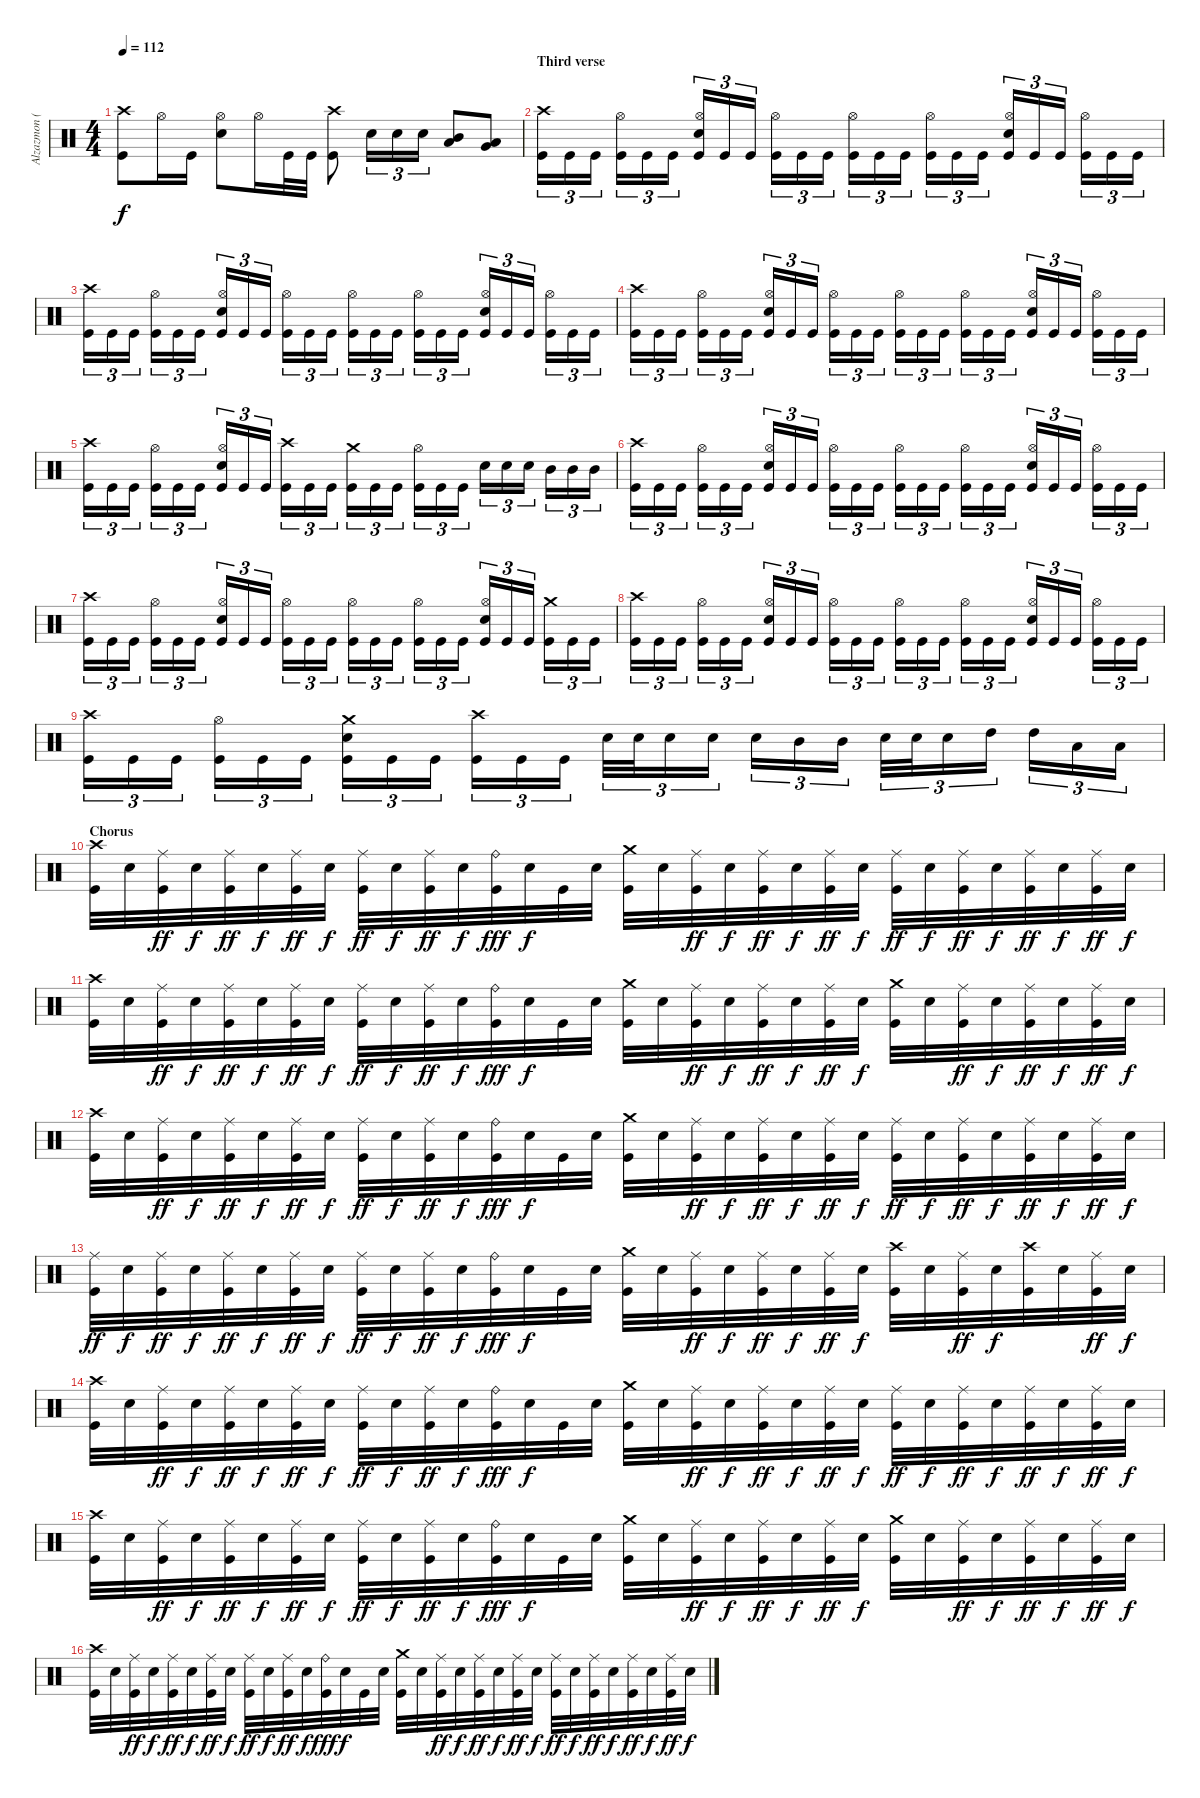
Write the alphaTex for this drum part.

\track ("Alzazmon (Drums)" "Alzazmon (") {instrument percussion}
\staff {score}
\articulation defaults
\ts (4 4)
\tempo 112
\clef neutral
\ks c
("Crash high (hit)" "Kick (hit)").8{dy f} "Hi-Hat (open)".16 "Kick (hit)".16 ("Hi-Hat (open)" "Electric Snare (hit)").8 "Hi-Hat (open)".16 "Kick (hit)".32 "Kick (hit)".32 ("Crash high (hit)" "Kick (hit)").8 "Electric Snare (hit)".16{tu (3 2)} "Electric Snare (hit)".16{tu (3 2)} "Electric Snare (hit)".16{tu (3 2)} ("Mid Tom (hit)" "Low Tom (hit)").8{bu 60} ("Low Tom (hit)" "Very Low Tom (hit)").8{bu 60} |
\section ("" "Third verse")
("Crash high (hit)" "Kick (hit)").16{tu (3 2)} "Kick (hit)".16{tu (3 2)} "Kick (hit)".16{tu (3 2)} ("Hi-Hat (open)" "Kick (hit)").16{tu (3 2)} "Kick (hit)".16{tu (3 2)} "Kick (hit)".16{tu (3 2)} ("Hi-Hat (open)" "Electric Snare (hit)" "Kick (hit)").16{tu (3 2)} "Kick (hit)".16{tu (3 2)} "Kick (hit)".16{tu (3 2)} ("Hi-Hat (open)" "Kick (hit)").16{tu (3 2)} "Kick (hit)".16{tu (3 2)} "Kick (hit)".16{tu (3 2)} ("Hi-Hat (open)" "Kick (hit)").16{tu (3 2)} "Kick (hit)".16{tu (3 2)} "Kick (hit)".16{tu (3 2)} ("Hi-Hat (open)" "Kick (hit)").16{tu (3 2)} "Kick (hit)".16{tu (3 2)} "Kick (hit)".16{tu (3 2)} ("Hi-Hat (open)" "Electric Snare (hit)" "Kick (hit)").16{tu (3 2)} "Kick (hit)".16{tu (3 2)} "Kick (hit)".16{tu (3 2)} ("Hi-Hat (open)" "Kick (hit)").16{tu (3 2)} "Kick (hit)".16{tu (3 2)} "Kick (hit)".16{tu (3 2)} |
("Crash high (hit)" "Kick (hit)").16{tu (3 2)} "Kick (hit)".16{tu (3 2)} "Kick (hit)".16{tu (3 2)} ("Hi-Hat (open)" "Kick (hit)").16{tu (3 2)} "Kick (hit)".16{tu (3 2)} "Kick (hit)".16{tu (3 2)} ("Hi-Hat (open)" "Electric Snare (hit)" "Kick (hit)").16{tu (3 2)} "Kick (hit)".16{tu (3 2)} "Kick (hit)".16{tu (3 2)} ("Hi-Hat (open)" "Kick (hit)").16{tu (3 2)} "Kick (hit)".16{tu (3 2)} "Kick (hit)".16{tu (3 2)} ("Hi-Hat (open)" "Kick (hit)").16{tu (3 2)} "Kick (hit)".16{tu (3 2)} "Kick (hit)".16{tu (3 2)} ("Hi-Hat (open)" "Kick (hit)").16{tu (3 2)} "Kick (hit)".16{tu (3 2)} "Kick (hit)".16{tu (3 2)} ("Hi-Hat (open)" "Electric Snare (hit)" "Kick (hit)").16{tu (3 2)} "Kick (hit)".16{tu (3 2)} "Kick (hit)".16{tu (3 2)} ("Hi-Hat (open)" "Kick (hit)").16{tu (3 2)} "Kick (hit)".16{tu (3 2)} "Kick (hit)".16{tu (3 2)} |
("Crash high (hit)" "Kick (hit)").16{tu (3 2)} "Kick (hit)".16{tu (3 2)} "Kick (hit)".16{tu (3 2)} ("Hi-Hat (open)" "Kick (hit)").16{tu (3 2)} "Kick (hit)".16{tu (3 2)} "Kick (hit)".16{tu (3 2)} ("Hi-Hat (open)" "Electric Snare (hit)" "Kick (hit)").16{tu (3 2)} "Kick (hit)".16{tu (3 2)} "Kick (hit)".16{tu (3 2)} ("Hi-Hat (open)" "Kick (hit)").16{tu (3 2)} "Kick (hit)".16{tu (3 2)} "Kick (hit)".16{tu (3 2)} ("Hi-Hat (open)" "Kick (hit)").16{tu (3 2)} "Kick (hit)".16{tu (3 2)} "Kick (hit)".16{tu (3 2)} ("Hi-Hat (open)" "Kick (hit)").16{tu (3 2)} "Kick (hit)".16{tu (3 2)} "Kick (hit)".16{tu (3 2)} ("Hi-Hat (open)" "Electric Snare (hit)" "Kick (hit)").16{tu (3 2)} "Kick (hit)".16{tu (3 2)} "Kick (hit)".16{tu (3 2)} ("Hi-Hat (open)" "Kick (hit)").16{tu (3 2)} "Kick (hit)".16{tu (3 2)} "Kick (hit)".16{tu (3 2)} |
("Crash high (hit)" "Kick (hit)").16{tu (3 2)} "Kick (hit)".16{tu (3 2)} "Kick (hit)".16{tu (3 2)} ("Hi-Hat (open)" "Kick (hit)").16{tu (3 2)} "Kick (hit)".16{tu (3 2)} "Kick (hit)".16{tu (3 2)} ("Hi-Hat (open)" "Electric Snare (hit)" "Kick (hit)").16{tu (3 2)} "Kick (hit)".16{tu (3 2)} "Kick (hit)".16{tu (3 2)} ("Crash high (hit)" "Kick (hit)").16{tu (3 2)} "Kick (hit)".16{tu (3 2)} "Kick (hit)".16{tu (3 2)} ("Crash medium (hit)" "Kick (hit)").16{tu (3 2)} "Kick (hit)".16{tu (3 2)} "Kick (hit)".16{tu (3 2)} ("Hi-Hat (open)" "Kick (hit)").16{tu (3 2)} "Kick (hit)".16{tu (3 2)} "Kick (hit)".16{tu (3 2)} "Electric Snare (hit)".16{tu (3 2)} "Electric Snare (hit)".16{tu (3 2)} "Electric Snare (hit)".16{tu (3 2)} "Mid Tom (hit)".16{tu (3 2)} "Mid Tom (hit)".16{tu (3 2)} "Mid Tom (hit)".16{tu (3 2)} |
("Crash high (hit)" "Kick (hit)").16{tu (3 2)} "Kick (hit)".16{tu (3 2)} "Kick (hit)".16{tu (3 2)} ("Hi-Hat (open)" "Kick (hit)").16{tu (3 2)} "Kick (hit)".16{tu (3 2)} "Kick (hit)".16{tu (3 2)} ("Hi-Hat (open)" "Electric Snare (hit)" "Kick (hit)").16{tu (3 2)} "Kick (hit)".16{tu (3 2)} "Kick (hit)".16{tu (3 2)} ("Hi-Hat (open)" "Kick (hit)").16{tu (3 2)} "Kick (hit)".16{tu (3 2)} "Kick (hit)".16{tu (3 2)} ("Hi-Hat (open)" "Kick (hit)").16{tu (3 2)} "Kick (hit)".16{tu (3 2)} "Kick (hit)".16{tu (3 2)} ("Hi-Hat (open)" "Kick (hit)").16{tu (3 2)} "Kick (hit)".16{tu (3 2)} "Kick (hit)".16{tu (3 2)} ("Hi-Hat (open)" "Electric Snare (hit)" "Kick (hit)").16{tu (3 2)} "Kick (hit)".16{tu (3 2)} "Kick (hit)".16{tu (3 2)} ("Hi-Hat (open)" "Kick (hit)").16{tu (3 2)} "Kick (hit)".16{tu (3 2)} "Kick (hit)".16{tu (3 2)} |
("Crash high (hit)" "Kick (hit)").16{tu (3 2)} "Kick (hit)".16{tu (3 2)} "Kick (hit)".16{tu (3 2)} ("Hi-Hat (open)" "Kick (hit)").16{tu (3 2)} "Kick (hit)".16{tu (3 2)} "Kick (hit)".16{tu (3 2)} ("Hi-Hat (open)" "Electric Snare (hit)" "Kick (hit)").16{tu (3 2)} "Kick (hit)".16{tu (3 2)} "Kick (hit)".16{tu (3 2)} ("Hi-Hat (open)" "Kick (hit)").16{tu (3 2)} "Kick (hit)".16{tu (3 2)} "Kick (hit)".16{tu (3 2)} ("Hi-Hat (open)" "Kick (hit)").16{tu (3 2)} "Kick (hit)".16{tu (3 2)} "Kick (hit)".16{tu (3 2)} ("Hi-Hat (open)" "Kick (hit)").16{tu (3 2)} "Kick (hit)".16{tu (3 2)} "Kick (hit)".16{tu (3 2)} ("Hi-Hat (open)" "Electric Snare (hit)" "Kick (hit)").16{tu (3 2)} "Kick (hit)".16{tu (3 2)} "Kick (hit)".16{tu (3 2)} ("Crash medium (hit)" "Kick (hit)").16{tu (3 2)} "Kick (hit)".16{tu (3 2)} "Kick (hit)".16{tu (3 2)} |
("Crash high (hit)" "Kick (hit)").16{tu (3 2)} "Kick (hit)".16{tu (3 2)} "Kick (hit)".16{tu (3 2)} ("Hi-Hat (open)" "Kick (hit)").16{tu (3 2)} "Kick (hit)".16{tu (3 2)} "Kick (hit)".16{tu (3 2)} ("Hi-Hat (open)" "Electric Snare (hit)" "Kick (hit)").16{tu (3 2)} "Kick (hit)".16{tu (3 2)} "Kick (hit)".16{tu (3 2)} ("Hi-Hat (open)" "Kick (hit)").16{tu (3 2)} "Kick (hit)".16{tu (3 2)} "Kick (hit)".16{tu (3 2)} ("Hi-Hat (open)" "Kick (hit)").16{tu (3 2)} "Kick (hit)".16{tu (3 2)} "Kick (hit)".16{tu (3 2)} ("Hi-Hat (open)" "Kick (hit)").16{tu (3 2)} "Kick (hit)".16{tu (3 2)} "Kick (hit)".16{tu (3 2)} ("Hi-Hat (open)" "Electric Snare (hit)" "Kick (hit)").16{tu (3 2)} "Kick (hit)".16{tu (3 2)} "Kick (hit)".16{tu (3 2)} ("Hi-Hat (open)" "Kick (hit)").16{tu (3 2)} "Kick (hit)".16{tu (3 2)} "Kick (hit)".16{tu (3 2)} |
("Crash high (hit)" "Kick (hit)").16{tu (3 2)} "Kick (hit)".16{tu (3 2)} "Kick (hit)".16{tu (3 2)} ("Hi-Hat (open)" "Kick (hit)").16{tu (3 2)} "Kick (hit)".16{tu (3 2)} "Kick (hit)".16{tu (3 2)} ("Crash medium (hit)" "Electric Snare (hit)" "Kick (hit)").16{tu (3 2)} "Kick (hit)".16{tu (3 2)} "Kick (hit)".16{tu (3 2)} ("Crash high (hit)" "Kick (hit)").16{tu (3 2)} "Kick (hit)".16{tu (3 2)} "Kick (hit)".16{tu (3 2)} "Electric Snare (hit)".32{tu (3 2)} "Electric Snare (hit)".32{tu (3 2)} "Electric Snare (hit)".16{tu (3 2)} "Electric Snare (hit)".16{tu (3 2)} "Electric Snare (hit)".16{tu (3 2)} "Mid Tom (hit)".16{tu (3 2)} "Mid Tom (hit)".16{tu (3 2)} "Electric Snare (hit)".32{tu (3 2)} "Electric Snare (hit)".32{tu (3 2)} "Electric Snare (hit)".16{tu (3 2)} "High Tom (hit)".16{tu (3 2)} "High Tom (hit)".16{tu (3 2)} "Low Tom (hit)".16{tu (3 2)} "Low Tom (hit)".16{tu (3 2)} |
\section ("" "Chorus")
("Crash high (hit)" "Kick (hit)").32 "Electric Snare (hit)".32 ("Ride (middle)" "Kick (hit)").32{dy ff} "Electric Snare (hit)".32{dy f} ("Ride (middle)" "Kick (hit)").32{dy ff} "Electric Snare (hit)".32{dy f} ("Ride (middle)" "Kick (hit)").32{dy ff} "Electric Snare (hit)".32{dy f} ("Ride (middle)" "Kick (hit)").32{dy ff} "Electric Snare (hit)".32{dy f} ("Ride (middle)" "Kick (hit)").32{dy ff} "Electric Snare (hit)".32{dy f} ("Ride (bell)" "Kick (hit)").32{dy fff} "Electric Snare (hit)".32{dy f} "Kick (hit)".32 "Electric Snare (hit)".32 ("Crash medium (hit)" "Kick (hit)").32 "Electric Snare (hit)".32 ("Ride (middle)" "Kick (hit)").32{dy ff} "Electric Snare (hit)".32{dy f} ("Ride (middle)" "Kick (hit)").32{dy ff} "Electric Snare (hit)".32{dy f} ("Ride (middle)" "Kick (hit)").32{dy ff} "Electric Snare (hit)".32{dy f} ("Ride (middle)" "Kick (hit)").32{dy ff} "Electric Snare (hit)".32{dy f} ("Ride (middle)" "Kick (hit)").32{dy ff} "Electric Snare (hit)".32{dy f} ("Ride (middle)" "Kick (hit)").32{dy ff} "Electric Snare (hit)".32{dy f} ("Ride (middle)" "Kick (hit)").32{dy ff} "Electric Snare (hit)".32{dy f} |
("Crash high (hit)" "Kick (hit)").32 "Electric Snare (hit)".32 ("Ride (middle)" "Kick (hit)").32{dy ff} "Electric Snare (hit)".32{dy f} ("Ride (middle)" "Kick (hit)").32{dy ff} "Electric Snare (hit)".32{dy f} ("Ride (middle)" "Kick (hit)").32{dy ff} "Electric Snare (hit)".32{dy f} ("Ride (middle)" "Kick (hit)").32{dy ff} "Electric Snare (hit)".32{dy f} ("Ride (middle)" "Kick (hit)").32{dy ff} "Electric Snare (hit)".32{dy f} ("Ride (bell)" "Kick (hit)").32{dy fff} "Electric Snare (hit)".32{dy f} "Kick (hit)".32 "Electric Snare (hit)".32 ("Crash medium (hit)" "Kick (hit)").32 "Electric Snare (hit)".32 ("Ride (middle)" "Kick (hit)").32{dy ff} "Electric Snare (hit)".32{dy f} ("Ride (middle)" "Kick (hit)").32{dy ff} "Electric Snare (hit)".32{dy f} ("Ride (middle)" "Kick (hit)").32{dy ff} "Electric Snare (hit)".32{dy f} ("Crash medium (hit)" "Kick (hit)").32 "Electric Snare (hit)".32 ("Ride (middle)" "Kick (hit)").32{dy ff} "Electric Snare (hit)".32{dy f} ("Ride (middle)" "Kick (hit)").32{dy ff} "Electric Snare (hit)".32{dy f} ("Ride (middle)" "Kick (hit)").32{dy ff} "Electric Snare (hit)".32{dy f} |
("Crash high (hit)" "Kick (hit)").32 "Electric Snare (hit)".32 ("Ride (middle)" "Kick (hit)").32{dy ff} "Electric Snare (hit)".32{dy f} ("Ride (middle)" "Kick (hit)").32{dy ff} "Electric Snare (hit)".32{dy f} ("Ride (middle)" "Kick (hit)").32{dy ff} "Electric Snare (hit)".32{dy f} ("Ride (middle)" "Kick (hit)").32{dy ff} "Electric Snare (hit)".32{dy f} ("Ride (middle)" "Kick (hit)").32{dy ff} "Electric Snare (hit)".32{dy f} ("Ride (bell)" "Kick (hit)").32{dy fff} "Electric Snare (hit)".32{dy f} "Kick (hit)".32 "Electric Snare (hit)".32 ("Crash medium (hit)" "Kick (hit)").32 "Electric Snare (hit)".32 ("Ride (middle)" "Kick (hit)").32{dy ff} "Electric Snare (hit)".32{dy f} ("Ride (middle)" "Kick (hit)").32{dy ff} "Electric Snare (hit)".32{dy f} ("Ride (middle)" "Kick (hit)").32{dy ff} "Electric Snare (hit)".32{dy f} ("Ride (middle)" "Kick (hit)").32{dy ff} "Electric Snare (hit)".32{dy f} ("Ride (middle)" "Kick (hit)").32{dy ff} "Electric Snare (hit)".32{dy f} ("Ride (middle)" "Kick (hit)").32{dy ff} "Electric Snare (hit)".32{dy f} ("Ride (middle)" "Kick (hit)").32{dy ff} "Electric Snare (hit)".32{dy f} |
("Ride (middle)" "Kick (hit)").32{dy ff} "Electric Snare (hit)".32{dy f} ("Ride (middle)" "Kick (hit)").32{dy ff} "Electric Snare (hit)".32{dy f} ("Ride (middle)" "Kick (hit)").32{dy ff} "Electric Snare (hit)".32{dy f} ("Ride (middle)" "Kick (hit)").32{dy ff} "Electric Snare (hit)".32{dy f} ("Ride (middle)" "Kick (hit)").32{dy ff} "Electric Snare (hit)".32{dy f} ("Ride (middle)" "Kick (hit)").32{dy ff} "Electric Snare (hit)".32{dy f} ("Ride (bell)" "Kick (hit)").32{dy fff} "Electric Snare (hit)".32{dy f} "Kick (hit)".32 "Electric Snare (hit)".32 ("Crash medium (hit)" "Kick (hit)").32 "Electric Snare (hit)".32 ("Ride (middle)" "Kick (hit)").32{dy ff} "Electric Snare (hit)".32{dy f} ("Ride (middle)" "Kick (hit)").32{dy ff} "Electric Snare (hit)".32{dy f} ("Ride (middle)" "Kick (hit)").32{dy ff} "Electric Snare (hit)".32{dy f} ("Crash high (hit)" "Kick (hit)").32 "Electric Snare (hit)".32 ("Ride (middle)" "Kick (hit)").32{dy ff} "Electric Snare (hit)".32{dy f} ("Crash high (hit)" "Kick (hit)").32 "Electric Snare (hit)".32 ("Ride (middle)" "Kick (hit)").32{dy ff} "Electric Snare (hit)".32{dy f} |
("Crash high (hit)" "Kick (hit)").32 "Electric Snare (hit)".32 ("Ride (middle)" "Kick (hit)").32{dy ff} "Electric Snare (hit)".32{dy f} ("Ride (middle)" "Kick (hit)").32{dy ff} "Electric Snare (hit)".32{dy f} ("Ride (middle)" "Kick (hit)").32{dy ff} "Electric Snare (hit)".32{dy f} ("Ride (middle)" "Kick (hit)").32{dy ff} "Electric Snare (hit)".32{dy f} ("Ride (middle)" "Kick (hit)").32{dy ff} "Electric Snare (hit)".32{dy f} ("Ride (bell)" "Kick (hit)").32{dy fff} "Electric Snare (hit)".32{dy f} "Kick (hit)".32 "Electric Snare (hit)".32 ("Crash medium (hit)" "Kick (hit)").32 "Electric Snare (hit)".32 ("Ride (middle)" "Kick (hit)").32{dy ff} "Electric Snare (hit)".32{dy f} ("Ride (middle)" "Kick (hit)").32{dy ff} "Electric Snare (hit)".32{dy f} ("Ride (middle)" "Kick (hit)").32{dy ff} "Electric Snare (hit)".32{dy f} ("Ride (middle)" "Kick (hit)").32{dy ff} "Electric Snare (hit)".32{dy f} ("Ride (middle)" "Kick (hit)").32{dy ff} "Electric Snare (hit)".32{dy f} ("Ride (middle)" "Kick (hit)").32{dy ff} "Electric Snare (hit)".32{dy f} ("Ride (middle)" "Kick (hit)").32{dy ff} "Electric Snare (hit)".32{dy f} |
("Crash high (hit)" "Kick (hit)").32 "Electric Snare (hit)".32 ("Ride (middle)" "Kick (hit)").32{dy ff} "Electric Snare (hit)".32{dy f} ("Ride (middle)" "Kick (hit)").32{dy ff} "Electric Snare (hit)".32{dy f} ("Ride (middle)" "Kick (hit)").32{dy ff} "Electric Snare (hit)".32{dy f} ("Ride (middle)" "Kick (hit)").32{dy ff} "Electric Snare (hit)".32{dy f} ("Ride (middle)" "Kick (hit)").32{dy ff} "Electric Snare (hit)".32{dy f} ("Ride (bell)" "Kick (hit)").32{dy fff} "Electric Snare (hit)".32{dy f} "Kick (hit)".32 "Electric Snare (hit)".32 ("Crash medium (hit)" "Kick (hit)").32 "Electric Snare (hit)".32 ("Ride (middle)" "Kick (hit)").32{dy ff} "Electric Snare (hit)".32{dy f} ("Ride (middle)" "Kick (hit)").32{dy ff} "Electric Snare (hit)".32{dy f} ("Ride (middle)" "Kick (hit)").32{dy ff} "Electric Snare (hit)".32{dy f} ("Crash medium (hit)" "Kick (hit)").32 "Electric Snare (hit)".32 ("Ride (middle)" "Kick (hit)").32{dy ff} "Electric Snare (hit)".32{dy f} ("Ride (middle)" "Kick (hit)").32{dy ff} "Electric Snare (hit)".32{dy f} ("Ride (middle)" "Kick (hit)").32{dy ff} "Electric Snare (hit)".32{dy f} |
("Crash high (hit)" "Kick (hit)").32 "Electric Snare (hit)".32 ("Ride (middle)" "Kick (hit)").32{dy ff} "Electric Snare (hit)".32{dy f} ("Ride (middle)" "Kick (hit)").32{dy ff} "Electric Snare (hit)".32{dy f} ("Ride (middle)" "Kick (hit)").32{dy ff} "Electric Snare (hit)".32{dy f} ("Ride (middle)" "Kick (hit)").32{dy ff} "Electric Snare (hit)".32{dy f} ("Ride (middle)" "Kick (hit)").32{dy ff} "Electric Snare (hit)".32{dy f} ("Ride (bell)" "Kick (hit)").32{dy fff} "Electric Snare (hit)".32{dy f} "Kick (hit)".32 "Electric Snare (hit)".32 ("Crash medium (hit)" "Kick (hit)").32 "Electric Snare (hit)".32 ("Ride (middle)" "Kick (hit)").32{dy ff} "Electric Snare (hit)".32{dy f} ("Ride (middle)" "Kick (hit)").32{dy ff} "Electric Snare (hit)".32{dy f} ("Ride (middle)" "Kick (hit)").32{dy ff} "Electric Snare (hit)".32{dy f} ("Ride (middle)" "Kick (hit)").32{dy ff} "Electric Snare (hit)".32{dy f} ("Ride (middle)" "Kick (hit)").32{dy ff} "Electric Snare (hit)".32{dy f} ("Ride (middle)" "Kick (hit)").32{dy ff} "Electric Snare (hit)".32{dy f} ("Ride (middle)" "Kick (hit)").32{dy ff} "Electric Snare (hit)".32{dy f}
